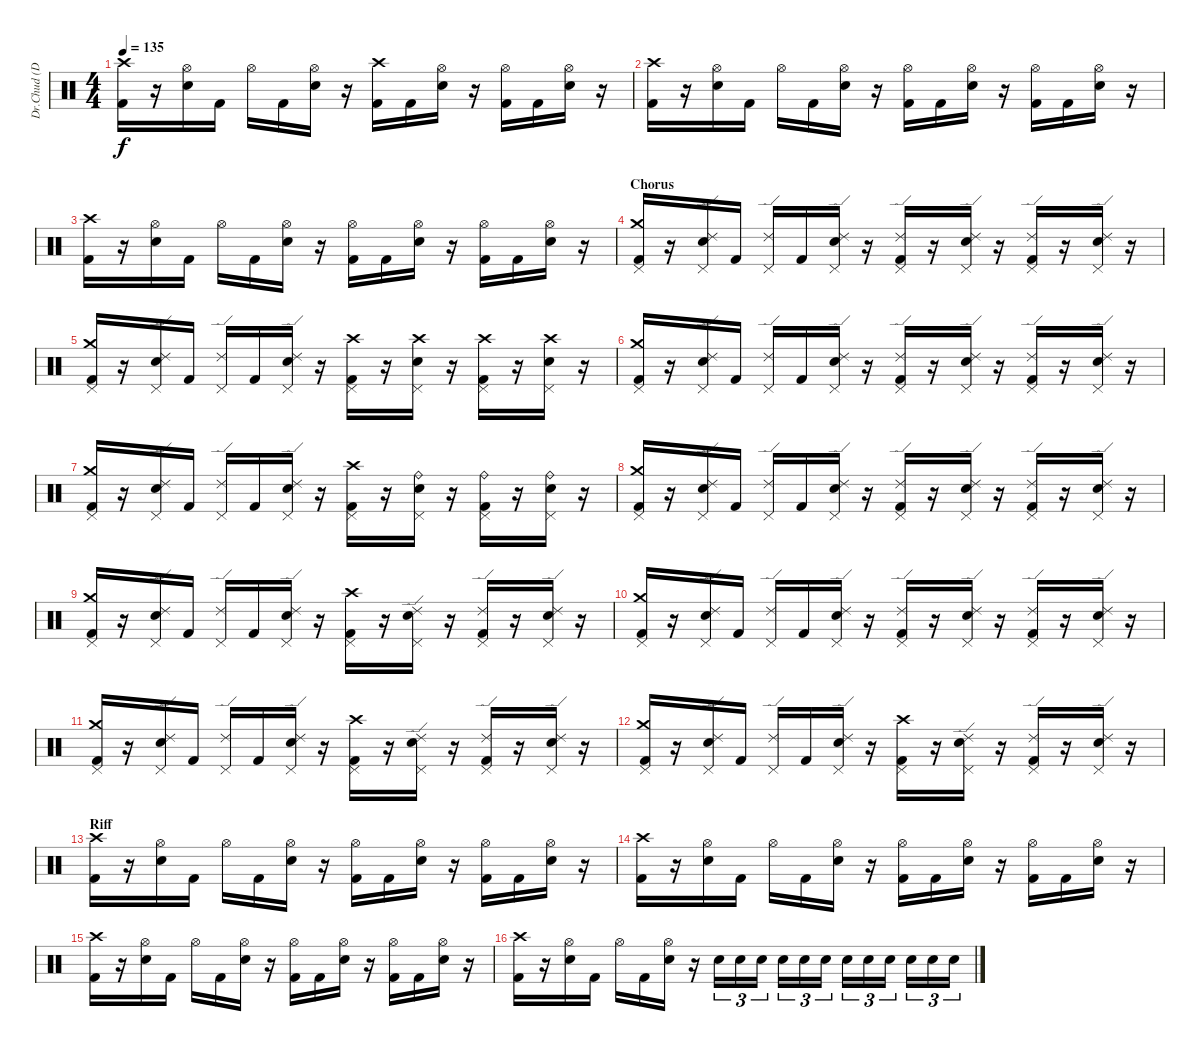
\track ("Dr.Chud (Drums)" "Dr.Chud (D") {instrument percussion}
\staff {score}
\articulation defaults
\ts (4 4)
\tempo 135
\clef neutral
\ks c
("Crash high (hit)" "Kick (hit) 2").16{dy f} r.16 ("Hi-Hat (open)" "Snare (hit) 2").16 "Kick (hit) 2".16 "Hi-Hat (open)".16 "Kick (hit) 2".16 ("Hi-Hat (open)" "Snare (hit) 2").16 r.16 ("Crash high (hit)" "Kick (hit) 2").16 "Kick (hit) 2".16 ("Hi-Hat (open)" "Snare (hit) 2").16 r.16 ("Hi-Hat (open)" "Kick (hit) 2").16 "Kick (hit) 2".16 ("Hi-Hat (open)" "Snare (hit) 2").16 r.16 |
("Crash high (hit)" "Kick (hit) 2").16 r.16 ("Hi-Hat (open)" "Snare (hit) 2").16 "Kick (hit) 2".16 "Hi-Hat (open)".16 "Kick (hit) 2".16 ("Hi-Hat (open)" "Snare (hit) 2").16 r.16 ("Hi-Hat (open)" "Kick (hit) 2").16 "Kick (hit) 2".16 ("Hi-Hat (open)" "Snare (hit) 2").16 r.16 ("Hi-Hat (open)" "Kick (hit) 2").16 "Kick (hit) 2".16 ("Hi-Hat (open)" "Snare (hit) 2").16 r.16 |
("Crash high (hit)" "Kick (hit) 2").16 r.16 ("Hi-Hat (open)" "Snare (hit) 2").16 "Kick (hit) 2".16 "Hi-Hat (open)".16 "Kick (hit) 2".16 ("Hi-Hat (open)" "Snare (hit) 2").16 r.16 ("Hi-Hat (open)" "Kick (hit) 2").16 "Kick (hit) 2".16 ("Hi-Hat (open)" "Snare (hit) 2").16 r.16 ("Hi-Hat (open)" "Kick (hit) 2").16 "Kick (hit) 2".16 ("Hi-Hat (open)" "Snare (hit) 2").16 r.16 |
\section ("" "Chorus")
("Crash medium (hit)" "Pedal Hi-Hat (hit)" "Kick (hit) 2").16 r.16 ("Ride (edge) 2" "Snare (hit) 2" "Pedal Hi-Hat (hit)").16 "Kick (hit) 2".16 ("Ride (edge) 2" "Pedal Hi-Hat (hit)").16 "Kick (hit) 2".16 ("Ride (edge) 2" "Snare (hit) 2" "Pedal Hi-Hat (hit)").16 r.16 ("Ride (edge) 2" "Pedal Hi-Hat (hit)" "Kick (hit) 2").16 r.16 ("Ride (edge) 2" "Snare (hit) 2" "Pedal Hi-Hat (hit)").16 r.16 ("Ride (edge) 2" "Pedal Hi-Hat (hit)" "Kick (hit) 2").16 r.16 ("Ride (edge) 2" "Snare (hit) 2" "Pedal Hi-Hat (hit)").16 r.16 |
("Crash medium (hit)" "Pedal Hi-Hat (hit)" "Kick (hit) 2").16 r.16 ("Ride (edge) 2" "Snare (hit) 2" "Pedal Hi-Hat (hit)").16 "Kick (hit) 2".16 ("Ride (edge) 2" "Pedal Hi-Hat (hit)").16 "Kick (hit) 2".16 ("Ride (edge) 2" "Snare (hit) 2" "Pedal Hi-Hat (hit)").16 r.16 ("Crash high (hit)" "Pedal Hi-Hat (hit)" "Kick (hit) 2").16 r.16 ("Crash high (hit)" "Snare (hit) 2" "Pedal Hi-Hat (hit)").16 r.16 ("Crash high (hit)" "Pedal Hi-Hat (hit)" "Kick (hit) 2").16 r.16 ("Crash high (hit)" "Snare (hit) 2" "Pedal Hi-Hat (hit)").16 r.16 |
("Crash medium (hit)" "Pedal Hi-Hat (hit)" "Kick (hit) 2").16 r.16 ("Ride (edge) 2" "Snare (hit) 2" "Pedal Hi-Hat (hit)").16 "Kick (hit) 2".16 ("Ride (edge) 2" "Pedal Hi-Hat (hit)").16 "Kick (hit) 2".16 ("Ride (edge) 2" "Snare (hit) 2" "Pedal Hi-Hat (hit)").16 r.16 ("Ride (edge) 2" "Pedal Hi-Hat (hit)" "Kick (hit) 2").16 r.16 ("Ride (edge) 2" "Snare (hit) 2" "Pedal Hi-Hat (hit)").16 r.16 ("Ride (edge) 2" "Pedal Hi-Hat (hit)" "Kick (hit) 2").16 r.16 ("Ride (edge) 2" "Snare (hit) 2" "Pedal Hi-Hat (hit)").16 r.16 |
("Crash medium (hit)" "Pedal Hi-Hat (hit)" "Kick (hit) 2").16 r.16 ("Ride (edge) 2" "Snare (hit) 2" "Pedal Hi-Hat (hit)").16 "Kick (hit) 2".16 ("Ride (edge) 2" "Pedal Hi-Hat (hit)").16 "Kick (hit) 2".16 ("Ride (edge) 2" "Snare (hit) 2" "Pedal Hi-Hat (hit)").16 r.16 ("Crash high (hit)" "Pedal Hi-Hat (hit)" "Kick (hit) 2").16 r.16 ("Ride (bell)" "Snare (hit) 2" "Pedal Hi-Hat (hit)").16 r.16 ("Ride (bell)" "Pedal Hi-Hat (hit)" "Kick (hit) 2").16 r.16 ("Ride (bell)" "Snare (hit) 2" "Pedal Hi-Hat (hit)").16 r.16 |
("Crash medium (hit)" "Pedal Hi-Hat (hit)" "Kick (hit) 2").16 r.16 ("Ride (edge) 2" "Snare (hit) 2" "Pedal Hi-Hat (hit)").16 "Kick (hit) 2".16 ("Ride (edge) 2" "Pedal Hi-Hat (hit)").16 "Kick (hit) 2".16 ("Ride (edge) 2" "Snare (hit) 2" "Pedal Hi-Hat (hit)").16 r.16 ("Ride (edge) 2" "Pedal Hi-Hat (hit)" "Kick (hit) 2").16 r.16 ("Ride (edge) 2" "Snare (hit) 2" "Pedal Hi-Hat (hit)").16 r.16 ("Ride (edge) 2" "Pedal Hi-Hat (hit)" "Kick (hit) 2").16 r.16 ("Ride (edge) 2" "Snare (hit) 2" "Pedal Hi-Hat (hit)").16 r.16 |
("Crash medium (hit)" "Pedal Hi-Hat (hit)" "Kick (hit) 2").16 r.16 ("Ride (edge) 2" "Snare (hit) 2" "Pedal Hi-Hat (hit)").16 "Kick (hit) 2".16 ("Ride (edge) 2" "Pedal Hi-Hat (hit)").16 "Kick (hit) 2".16 ("Ride (edge) 2" "Snare (hit) 2" "Pedal Hi-Hat (hit)").16 r.16 ("Crash high (hit)" "Pedal Hi-Hat (hit)" "Kick (hit) 2").16 r.16 ("Ride (edge) 2" "Snare (hit) 2" "Pedal Hi-Hat (hit)").16 r.16 ("Ride (edge) 2" "Pedal Hi-Hat (hit)" "Kick (hit) 2").16 r.16 ("Ride (edge) 2" "Snare (hit) 2" "Pedal Hi-Hat (hit)").16 r.16 |
("Crash medium (hit)" "Pedal Hi-Hat (hit)" "Kick (hit) 2").16 r.16 ("Ride (edge) 2" "Snare (hit) 2" "Pedal Hi-Hat (hit)").16 "Kick (hit) 2".16 ("Ride (edge) 2" "Pedal Hi-Hat (hit)").16 "Kick (hit) 2".16 ("Ride (edge) 2" "Snare (hit) 2" "Pedal Hi-Hat (hit)").16 r.16 ("Ride (edge) 2" "Pedal Hi-Hat (hit)" "Kick (hit) 2").16 r.16 ("Ride (edge) 2" "Snare (hit) 2" "Pedal Hi-Hat (hit)").16 r.16 ("Ride (edge) 2" "Pedal Hi-Hat (hit)" "Kick (hit) 2").16 r.16 ("Ride (edge) 2" "Snare (hit) 2" "Pedal Hi-Hat (hit)").16 r.16 |
("Crash medium (hit)" "Pedal Hi-Hat (hit)" "Kick (hit) 2").16 r.16 ("Ride (edge) 2" "Snare (hit) 2" "Pedal Hi-Hat (hit)").16 "Kick (hit) 2".16 ("Ride (edge) 2" "Pedal Hi-Hat (hit)").16 "Kick (hit) 2".16 ("Ride (edge) 2" "Snare (hit) 2" "Pedal Hi-Hat (hit)").16 r.16 ("Crash high (hit)" "Pedal Hi-Hat (hit)" "Kick (hit) 2").16 r.16 ("Ride (edge) 2" "Snare (hit) 2" "Pedal Hi-Hat (hit)").16 r.16 ("Ride (edge) 2" "Pedal Hi-Hat (hit)" "Kick (hit) 2").16 r.16 ("Ride (edge) 2" "Snare (hit) 2" "Pedal Hi-Hat (hit)").16 r.16 |
("Crash medium (hit)" "Pedal Hi-Hat (hit)" "Kick (hit) 2").16 r.16 ("Ride (edge) 2" "Snare (hit) 2" "Pedal Hi-Hat (hit)").16 "Kick (hit) 2".16 ("Ride (edge) 2" "Pedal Hi-Hat (hit)").16 "Kick (hit) 2".16 ("Ride (edge) 2" "Snare (hit) 2" "Pedal Hi-Hat (hit)").16 r.16 ("Crash high (hit)" "Pedal Hi-Hat (hit)" "Kick (hit) 2").16 r.16 ("Ride (edge) 2" "Snare (hit) 2" "Pedal Hi-Hat (hit)").16 r.16 ("Ride (edge) 2" "Pedal Hi-Hat (hit)" "Kick (hit) 2").16 r.16 ("Ride (edge) 2" "Snare (hit) 2" "Pedal Hi-Hat (hit)").16 r.16 |
\section ("" "Riff")
("Crash high (hit)" "Kick (hit) 2").16 r.16 ("Hi-Hat (open)" "Snare (hit) 2").16 "Kick (hit) 2".16 "Hi-Hat (open)".16 "Kick (hit) 2".16 ("Hi-Hat (open)" "Snare (hit) 2").16 r.16 ("Hi-Hat (open)" "Kick (hit) 2").16 "Kick (hit) 2".16 ("Hi-Hat (open)" "Snare (hit) 2").16 r.16 ("Hi-Hat (open)" "Kick (hit) 2").16 "Kick (hit) 2".16 ("Hi-Hat (open)" "Snare (hit) 2").16 r.16 |
("Crash high (hit)" "Kick (hit) 2").16 r.16 ("Hi-Hat (open)" "Snare (hit) 2").16 "Kick (hit) 2".16 "Hi-Hat (open)".16 "Kick (hit) 2".16 ("Hi-Hat (open)" "Snare (hit) 2").16 r.16 ("Hi-Hat (open)" "Kick (hit) 2").16 "Kick (hit) 2".16 ("Hi-Hat (open)" "Snare (hit) 2").16 r.16 ("Hi-Hat (open)" "Kick (hit) 2").16 "Kick (hit) 2".16 ("Hi-Hat (open)" "Snare (hit) 2").16 r.16 |
("Crash high (hit)" "Kick (hit) 2").16 r.16 ("Hi-Hat (open)" "Snare (hit) 2").16 "Kick (hit) 2".16 "Hi-Hat (open)".16 "Kick (hit) 2".16 ("Hi-Hat (open)" "Snare (hit) 2").16 r.16 ("Hi-Hat (open)" "Kick (hit) 2").16 "Kick (hit) 2".16 ("Hi-Hat (open)" "Snare (hit) 2").16 r.16 ("Hi-Hat (open)" "Kick (hit) 2").16 "Kick (hit) 2".16 ("Hi-Hat (open)" "Snare (hit) 2").16 r.16 |
("Crash high (hit)" "Kick (hit) 2").16 r.16 ("Hi-Hat (open)" "Snare (hit) 2").16 "Kick (hit) 2".16 "Hi-Hat (open)".16 "Kick (hit) 2".16 ("Hi-Hat (open)" "Snare (hit) 2").16 r.16 "Snare (hit) 2".16{tu (3 2)} "Snare (hit) 2".16{tu (3 2)} "Snare (hit) 2".16{tu (3 2)} "Snare (hit) 2".16{tu (3 2)} "Snare (hit) 2".16{tu (3 2)} "Snare (hit) 2".16{tu (3 2)} "Snare (hit) 2".16{tu (3 2)} "Snare (hit) 2".16{tu (3 2)} "Snare (hit) 2".16{tu (3 2)} "Snare (hit) 2".16{tu (3 2)} "Snare (hit) 2".16{tu (3 2)} "Snare (hit) 2".16{tu (3 2)}
